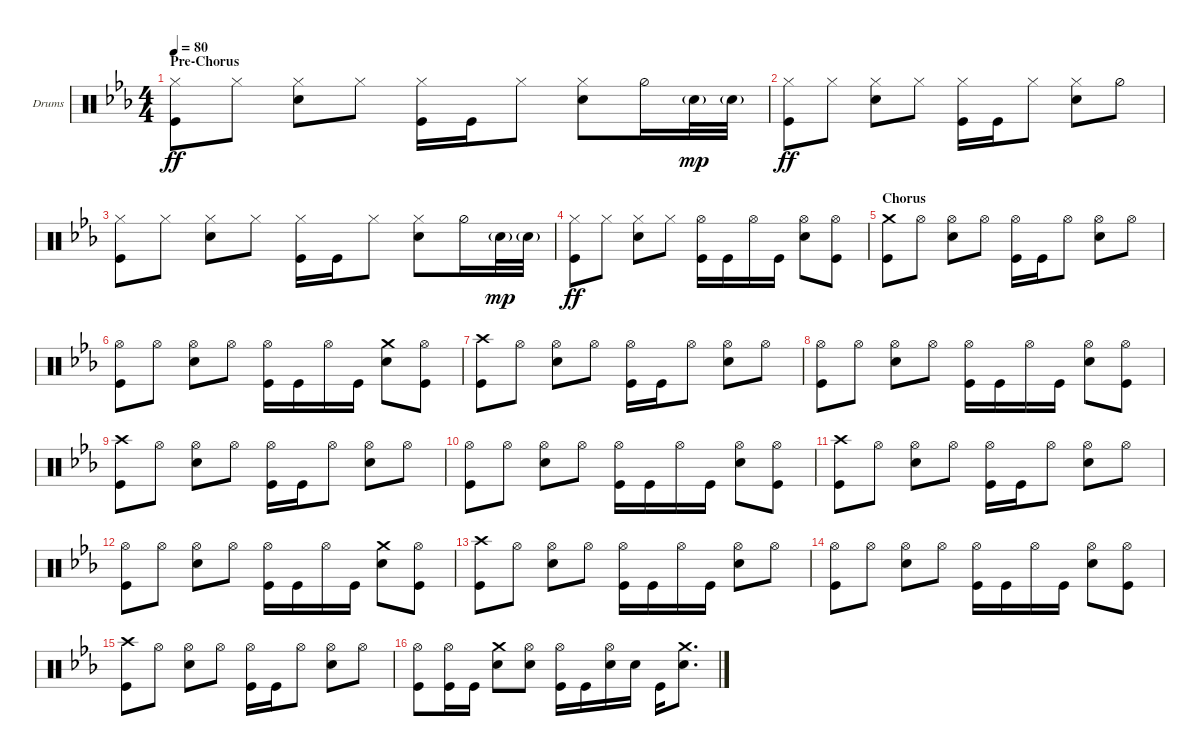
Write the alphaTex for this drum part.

\defaultSystemsLayout 4
\bracketExtendMode groupsimilarinstruments
\firstSystemTrackNameOrientation horizontal
\otherSystemsTrackNameOrientation horizontal
\track ("Mario Goossens" "Drums") {instrument percussion}
\staff {score}
\articulation defaults
\ts (4 4)
\section ("" "Pre-Chorus")
\tempo 80
\clef neutral
\ks cminor
("Kick (hit)" "Hi-Hat (closed)").8{dy ff} "Hi-Hat (closed)".8 ("Hi-Hat (closed)" "Snare (hit) 2").8 "Hi-Hat (closed)".8 ("Kick (hit)" "Hi-Hat (closed)").16 "Kick (hit)".16 "Hi-Hat (closed)".8 ("Hi-Hat (closed)" "Snare (hit) 2").8 "Hi-Hat (half)".16 "Snare (hit) 2"{g}.32{dy mp} "Snare (hit) 2"{g}.32 |
("Kick (hit)" "Hi-Hat (closed)").8{dy ff} "Hi-Hat (closed)".8 ("Hi-Hat (closed)" "Snare (hit) 2").8 "Hi-Hat (closed)".8 ("Kick (hit)" "Hi-Hat (closed)").16 "Kick (hit)".16 "Hi-Hat (closed)".8 ("Hi-Hat (closed)" "Snare (hit) 2").8 "Hi-Hat (half)".8 |
("Kick (hit)" "Hi-Hat (closed)").8 "Hi-Hat (closed)".8 ("Hi-Hat (closed)" "Snare (hit) 2").8 "Hi-Hat (closed)".8 ("Kick (hit)" "Hi-Hat (closed)").16 "Kick (hit)".16 "Hi-Hat (closed)".8 ("Hi-Hat (closed)" "Snare (hit) 2").8 "Hi-Hat (half)".16 "Snare (hit) 2"{g}.32{dy mp} "Snare (hit) 2"{g}.32 |
("Kick (hit)" "Hi-Hat (closed)").8{dy ff} "Hi-Hat (closed)".8 ("Hi-Hat (closed)" "Snare (hit) 2").8 "Hi-Hat (closed)".8 ("Kick (hit)" "Hi-Hat (open)").16 "Kick (hit)".16 "Hi-Hat (open)".16 "Kick (hit)".16 ("Hi-Hat (open)" "Snare (hit) 2").8 ("Hi-Hat (open)" "Kick (hit)").8 |
\section ("" "Chorus")
("Kick (hit)" "Crash medium (hit)").8 "Hi-Hat (open)".8 ("Hi-Hat (open)" "Snare (hit) 2").8 "Hi-Hat (open)".8 ("Kick (hit)" "Hi-Hat (open)").16 "Kick (hit)".16 "Hi-Hat (open)".8 ("Hi-Hat (open)" "Snare (hit) 2").8 "Hi-Hat (open)".8 |
("Kick (hit)" "Hi-Hat (open)").8 "Hi-Hat (open)".8 ("Hi-Hat (open)" "Snare (hit) 2").8 "Hi-Hat (open)".8 ("Kick (hit)" "Hi-Hat (open)").16 "Kick (hit)".16 "Hi-Hat (open)".16 "Kick (hit)".16 ("Snare (hit) 2" "Crash medium (hit)").8 ("Hi-Hat (open)" "Kick (hit)").8 |
("Kick (hit)" "Crash high (hit)").8 "Hi-Hat (open)".8 ("Hi-Hat (open)" "Snare (hit) 2").8 "Hi-Hat (open)".8 ("Kick (hit)" "Hi-Hat (open)").16 "Kick (hit)".16 "Hi-Hat (open)".8 ("Hi-Hat (open)" "Snare (hit) 2").8 "Hi-Hat (open)".8 |
("Kick (hit)" "Hi-Hat (open)").8 "Hi-Hat (open)".8 ("Hi-Hat (open)" "Snare (hit) 2").8 "Hi-Hat (open)".8 ("Kick (hit)" "Hi-Hat (open)").16 "Kick (hit)".16 "Hi-Hat (open)".16 "Kick (hit)".16 ("Snare (hit) 2" "Hi-Hat (open)").8 ("Hi-Hat (open)" "Kick (hit)").8 |
("Kick (hit)" "Crash high (hit)").8 "Hi-Hat (open)".8 ("Hi-Hat (open)" "Snare (hit) 2").8 "Hi-Hat (open)".8 ("Kick (hit)" "Hi-Hat (open)").16 "Kick (hit)".16 "Hi-Hat (open)".8 ("Hi-Hat (open)" "Snare (hit) 2").8 "Hi-Hat (open)".8 |
("Kick (hit)" "Hi-Hat (open)").8 "Hi-Hat (open)".8 ("Hi-Hat (open)" "Snare (hit) 2").8 "Hi-Hat (open)".8 ("Kick (hit)" "Hi-Hat (open)").16 "Kick (hit)".16 "Hi-Hat (open)".16 "Kick (hit)".16 ("Snare (hit) 2" "Hi-Hat (open)").8 ("Hi-Hat (open)" "Kick (hit)").8 |
("Kick (hit)" "Crash high (hit)").8 "Hi-Hat (open)".8 ("Hi-Hat (open)" "Snare (hit) 2").8 "Hi-Hat (open)".8 ("Kick (hit)" "Hi-Hat (open)").16 "Kick (hit)".16 "Hi-Hat (open)".8 ("Hi-Hat (open)" "Snare (hit) 2").8 "Hi-Hat (open)".8 |
("Kick (hit)" "Hi-Hat (open)").8 "Hi-Hat (open)".8 ("Hi-Hat (open)" "Snare (hit) 2").8 "Hi-Hat (open)".8 ("Kick (hit)" "Hi-Hat (open)").16 "Kick (hit)".16 "Hi-Hat (open)".16 "Kick (hit)".16 ("Snare (hit) 2" "Crash medium (hit)").8 ("Hi-Hat (open)" "Kick (hit)").8 |
("Kick (hit)" "Crash high (hit)").8 "Hi-Hat (open)".8 ("Hi-Hat (open)" "Snare (hit) 2").8 "Hi-Hat (open)".8 ("Kick (hit)" "Hi-Hat (open)").16 "Kick (hit)".16 "Hi-Hat (open)".16 "Kick (hit)".16 ("Hi-Hat (open)" "Snare (hit) 2").8 "Hi-Hat (open)".8 |
("Kick (hit)" "Hi-Hat (open)").8 "Hi-Hat (open)".8 ("Hi-Hat (open)" "Snare (hit) 2").8 "Hi-Hat (open)".8 ("Kick (hit)" "Hi-Hat (open)").16 "Kick (hit)".16 "Hi-Hat (open)".16 "Kick (hit)".16 ("Snare (hit) 2" "Hi-Hat (open)").8 ("Hi-Hat (open)" "Kick (hit)").8 |
("Kick (hit)" "Crash high (hit)").8 "Hi-Hat (open)".8 ("Hi-Hat (open)" "Snare (hit) 2").8 "Hi-Hat (open)".8 ("Kick (hit)" "Hi-Hat (open)").16 "Kick (hit)".16 "Hi-Hat (open)".8 ("Hi-Hat (open)" "Snare (hit) 2").8 "Hi-Hat (open)".8 |
("Kick (hit)" "Hi-Hat (open)").8 ("Kick (hit)" "Hi-Hat (open)").16 "Kick (hit)".16 ("Snare (hit) 2" "Crash medium (hit)").8 ("Snare (hit) 2" "Hi-Hat (open)").8 ("Kick (hit)" "Hi-Hat (open)").16 "Kick (hit)".16 ("Snare (hit) 2" "Hi-Hat (open)").16 "Snare (hit) 2".16 "Kick (hit)".16 ("Snare (hit) 2" "Crash medium (hit)").8{d}
